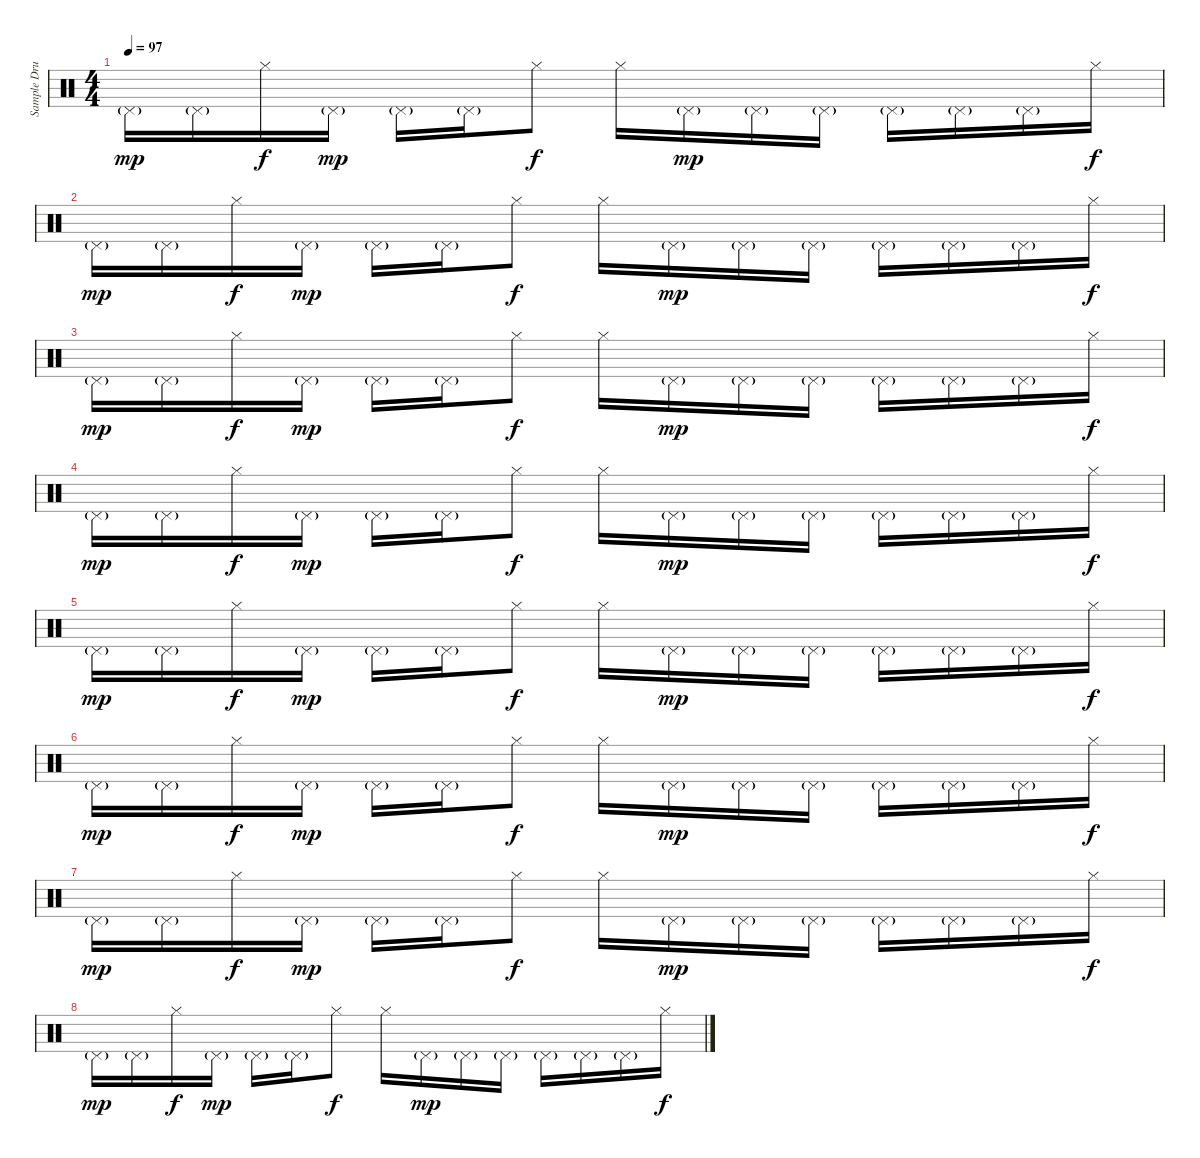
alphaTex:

\track ("Sample Drums" "Sample Dru") {instrument percussion}
\staff {score}
\articulation defaults
\ts (4 4)
\tempo 97
\clef neutral
\ks c "Pedal Hi-Hat (hit)"{g}.16{dy mp} "Pedal Hi-Hat (hit)"{g}.16 "Hi-Hat (closed)".16{dy f} "Pedal Hi-Hat (hit)"{g}.16{dy mp} "Pedal Hi-Hat (hit)"{g}.16 "Pedal Hi-Hat (hit)"{g}.16 "Hi-Hat (closed)".8{dy f} "Hi-Hat (closed)".16 "Pedal Hi-Hat (hit)"{g}.16{dy mp} "Pedal Hi-Hat (hit)"{g}.16 "Pedal Hi-Hat (hit)"{g}.16 "Pedal Hi-Hat (hit)"{g}.16 "Pedal Hi-Hat (hit)"{g}.16 "Pedal Hi-Hat (hit)"{g}.16 "Hi-Hat (closed)".16{dy f}
|
"Pedal Hi-Hat (hit)"{g}.16{dy mp} "Pedal Hi-Hat (hit)"{g}.16 "Hi-Hat (closed)".16{dy f} "Pedal Hi-Hat (hit)"{g}.16{dy mp} "Pedal Hi-Hat (hit)"{g}.16 "Pedal Hi-Hat (hit)"{g}.16 "Hi-Hat (closed)".8{dy f} "Hi-Hat (closed)".16 "Pedal Hi-Hat (hit)"{g}.16{dy mp} "Pedal Hi-Hat (hit)"{g}.16 "Pedal Hi-Hat (hit)"{g}.16 "Pedal Hi-Hat (hit)"{g}.16 "Pedal Hi-Hat (hit)"{g}.16 "Pedal Hi-Hat (hit)"{g}.16 "Hi-Hat (closed)".16{dy f} |
"Pedal Hi-Hat (hit)"{g}.16{dy mp} "Pedal Hi-Hat (hit)"{g}.16 "Hi-Hat (closed)".16{dy f} "Pedal Hi-Hat (hit)"{g}.16{dy mp} "Pedal Hi-Hat (hit)"{g}.16 "Pedal Hi-Hat (hit)"{g}.16 "Hi-Hat (closed)".8{dy f} "Hi-Hat (closed)".16 "Pedal Hi-Hat (hit)"{g}.16{dy mp} "Pedal Hi-Hat (hit)"{g}.16 "Pedal Hi-Hat (hit)"{g}.16 "Pedal Hi-Hat (hit)"{g}.16 "Pedal Hi-Hat (hit)"{g}.16 "Pedal Hi-Hat (hit)"{g}.16 "Hi-Hat (closed)".16{dy f} |
"Pedal Hi-Hat (hit)"{g}.16{dy mp} "Pedal Hi-Hat (hit)"{g}.16 "Hi-Hat (closed)".16{dy f} "Pedal Hi-Hat (hit)"{g}.16{dy mp} "Pedal Hi-Hat (hit)"{g}.16 "Pedal Hi-Hat (hit)"{g}.16 "Hi-Hat (closed)".8{dy f} "Hi-Hat (closed)".16 "Pedal Hi-Hat (hit)"{g}.16{dy mp} "Pedal Hi-Hat (hit)"{g}.16 "Pedal Hi-Hat (hit)"{g}.16 "Pedal Hi-Hat (hit)"{g}.16 "Pedal Hi-Hat (hit)"{g}.16 "Pedal Hi-Hat (hit)"{g}.16 "Hi-Hat (closed)".16{dy f} |
"Pedal Hi-Hat (hit)"{g}.16{dy mp} "Pedal Hi-Hat (hit)"{g}.16 "Hi-Hat (closed)".16{dy f} "Pedal Hi-Hat (hit)"{g}.16{dy mp} "Pedal Hi-Hat (hit)"{g}.16 "Pedal Hi-Hat (hit)"{g}.16 "Hi-Hat (closed)".8{dy f} "Hi-Hat (closed)".16 "Pedal Hi-Hat (hit)"{g}.16{dy mp} "Pedal Hi-Hat (hit)"{g}.16 "Pedal Hi-Hat (hit)"{g}.16 "Pedal Hi-Hat (hit)"{g}.16 "Pedal Hi-Hat (hit)"{g}.16 "Pedal Hi-Hat (hit)"{g}.16 "Hi-Hat (closed)".16{dy f} |
"Pedal Hi-Hat (hit)"{g}.16{dy mp} "Pedal Hi-Hat (hit)"{g}.16 "Hi-Hat (closed)".16{dy f} "Pedal Hi-Hat (hit)"{g}.16{dy mp} "Pedal Hi-Hat (hit)"{g}.16 "Pedal Hi-Hat (hit)"{g}.16 "Hi-Hat (closed)".8{dy f} "Hi-Hat (closed)".16 "Pedal Hi-Hat (hit)"{g}.16{dy mp} "Pedal Hi-Hat (hit)"{g}.16 "Pedal Hi-Hat (hit)"{g}.16 "Pedal Hi-Hat (hit)"{g}.16 "Pedal Hi-Hat (hit)"{g}.16 "Pedal Hi-Hat (hit)"{g}.16 "Hi-Hat (closed)".16{dy f} |
"Pedal Hi-Hat (hit)"{g}.16{dy mp} "Pedal Hi-Hat (hit)"{g}.16 "Hi-Hat (closed)".16{dy f} "Pedal Hi-Hat (hit)"{g}.16{dy mp} "Pedal Hi-Hat (hit)"{g}.16 "Pedal Hi-Hat (hit)"{g}.16 "Hi-Hat (closed)".8{dy f} "Hi-Hat (closed)".16 "Pedal Hi-Hat (hit)"{g}.16{dy mp} "Pedal Hi-Hat (hit)"{g}.16 "Pedal Hi-Hat (hit)"{g}.16 "Pedal Hi-Hat (hit)"{g}.16 "Pedal Hi-Hat (hit)"{g}.16 "Pedal Hi-Hat (hit)"{g}.16 "Hi-Hat (closed)".16{dy f} |
"Pedal Hi-Hat (hit)"{g}.16{dy mp} "Pedal Hi-Hat (hit)"{g}.16 "Hi-Hat (closed)".16{dy f} "Pedal Hi-Hat (hit)"{g}.16{dy mp} "Pedal Hi-Hat (hit)"{g}.16 "Pedal Hi-Hat (hit)"{g}.16 "Hi-Hat (closed)".8{dy f} "Hi-Hat (closed)".16 "Pedal Hi-Hat (hit)"{g}.16{dy mp} "Pedal Hi-Hat (hit)"{g}.16 "Pedal Hi-Hat (hit)"{g}.16 "Pedal Hi-Hat (hit)"{g}.16 "Pedal Hi-Hat (hit)"{g}.16 "Pedal Hi-Hat (hit)"{g}.16 "Hi-Hat (closed)".16{dy f}
